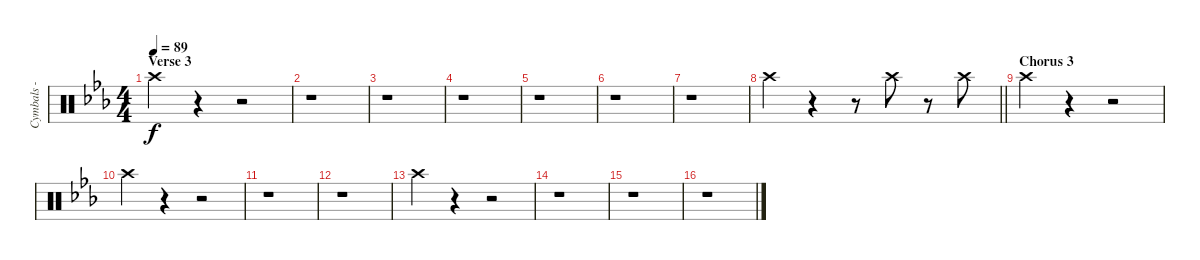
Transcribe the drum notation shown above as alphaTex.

\track ("Cymbals - crash" "Cymbals - ") {instrument percussion}
\staff {score}
\articulation defaults
\ts (4 4)
\section ("" "Verse 3")
\tempo 89
\clef neutral
\ks eb "Crash high (hit)".4{dy f}
r.4 r.2 |
r.1 |
r.1 |
r.1 |
r.1 |
r.1 |
r.1 |
\barLineRight lightlight "Crash high (hit)".4
r.4 r.8 "Crash high (hit)".8 r.8 "Crash high (hit)".8 |
\section ("" "Chorus 3")
"Crash high (hit)".4 r.4 r.2 |
"Crash high (hit)".4 r.4 r.2 |
r.1 |
r.1 |
"Crash high (hit)".4 r.4 r.2 |
r.1 |
r.1 |
r.1
